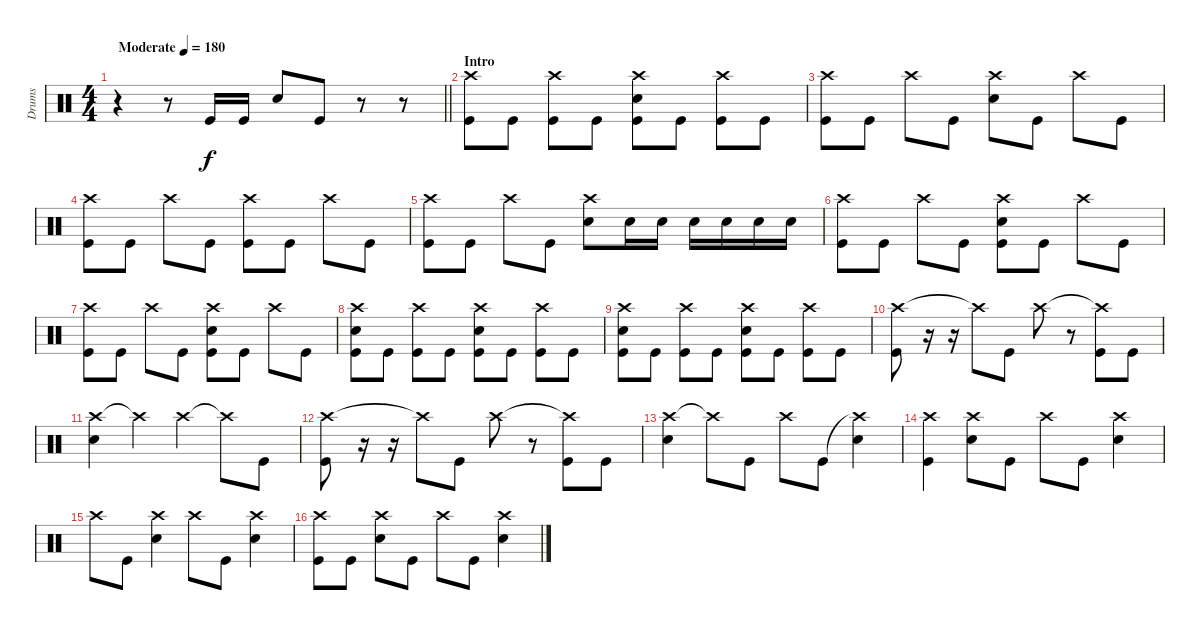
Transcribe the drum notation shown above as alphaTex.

\track ("Drums" "Drums") {instrument percussion}
\staff {score}
\articulation defaults
\ts (4 4)
\tempo (180 "Moderate")
\clef neutral
\barLineRight lightlight
\ks c
r.4{dy f} r.8 "Kick (hit)".16 "Kick (hit)".16 "Snare (hit) 2".8 "Kick (hit)".8 r.8 r.8 |
\section ("" "Intro")
("Crash high (hit)" "Kick (hit)").8 "Kick (hit)".8 ("Crash high (hit)" "Kick (hit)").8 "Kick (hit)".8 ("Crash high (hit)" "Snare (hit) 2" "Kick (hit)").8 "Kick (hit)".8 ("Crash high (hit)" "Kick (hit)").8 "Kick (hit)".8 |
("Crash high (hit)" "Kick (hit)").8 "Kick (hit)".8 "Crash high (hit)".8 "Kick (hit)".8 ("Crash high (hit)" "Snare (hit) 2").8 "Kick (hit)".8 "Crash high (hit)".8 "Kick (hit)".8 |
("Crash high (hit)" "Kick (hit)").8 "Kick (hit)".8 "Crash high (hit)".8 "Kick (hit)".8 ("Crash high (hit)" "Kick (hit)").8 "Kick (hit)".8 "Crash high (hit)".8 "Kick (hit)".8 |
("Crash high (hit)" "Kick (hit)").8 "Kick (hit)".8 "Crash high (hit)".8 "Kick (hit)".8 ("Crash high (hit)" "Snare (hit) 2").8 "Snare (hit) 2".16 "Snare (hit) 2".16 "Snare (hit) 2".16 "Snare (hit) 2".16 "Snare (hit) 2".16 "Snare (hit) 2".16 |
("Crash high (hit)" "Kick (hit)").8 "Kick (hit)".8 "Crash high (hit)".8 "Kick (hit)".8 ("Crash high (hit)" "Snare (hit) 2" "Kick (hit)").8 "Kick (hit)".8 "Crash high (hit)".8 "Kick (hit)".8 |
("Crash high (hit)" "Kick (hit)").8 "Kick (hit)".8 "Crash high (hit)".8 "Kick (hit)".8 ("Crash high (hit)" "Snare (hit) 2" "Kick (hit)").8 "Kick (hit)".8 "Crash high (hit)".8 "Kick (hit)".8 |
("Crash high (hit)" "Snare (hit) 2" "Kick (hit)").8 "Kick (hit)".8 ("Crash high (hit)" "Kick (hit)").8 "Kick (hit)".8 ("Crash high (hit)" "Snare (hit) 2" "Kick (hit)").8 "Kick (hit)".8 ("Crash high (hit)" "Kick (hit)").8 "Kick (hit)".8 |
("Crash high (hit)" "Snare (hit) 2" "Kick (hit)").8 "Kick (hit)".8 ("Crash high (hit)" "Kick (hit)").8 "Kick (hit)".8 ("Crash high (hit)" "Snare (hit) 2" "Kick (hit)").8 "Kick (hit)".8 ("Crash high (hit)" "Kick (hit)").8 "Kick (hit)".8 |
("Crash high (hit)" "Kick (hit)").8 r.16 r.16 "Crash high (hit)"{t}.8 "Kick (hit)".8 "Crash high (hit)".8 r.8 ("Crash high (hit)"{t} "Kick (hit)").8 "Kick (hit)".8 |
("Crash high (hit)" "Snare (hit) 2").4 "Crash high (hit)"{t}.4 "Crash high (hit)".4 "Crash high (hit)"{t}.8 "Kick (hit)".8 |
("Crash high (hit)" "Kick (hit)").8 r.16 r.16 "Crash high (hit)"{t}.8 "Kick (hit)".8 "Crash high (hit)".8 r.8 ("Crash high (hit)"{t} "Kick (hit)").8 "Kick (hit)".8 |
("Crash high (hit)" "Snare (hit) 2").4 "Crash high (hit)"{t}.8 "Kick (hit)".8 "Crash high (hit)".8 "Kick (hit)".8 ("Crash high (hit)"{t} "Snare (hit) 2").4 |
("Crash high (hit)" "Kick (hit)").4 ("Crash high (hit)" "Snare (hit) 2").8 "Kick (hit)".8 "Crash high (hit)".8 "Kick (hit)".8 ("Crash high (hit)" "Snare (hit) 2").4 |
"Crash high (hit)".8 "Kick (hit)".8 ("Crash high (hit)" "Snare (hit) 2").4 "Crash high (hit)".8 "Kick (hit)".8 ("Crash high (hit)" "Snare (hit) 2").4 |
("Crash high (hit)" "Kick (hit)").8 "Kick (hit)".8 ("Crash high (hit)" "Snare (hit) 2").8 "Kick (hit)".8 "Crash high (hit)".8 "Kick (hit)".8 ("Crash high (hit)" "Snare (hit) 2").4
